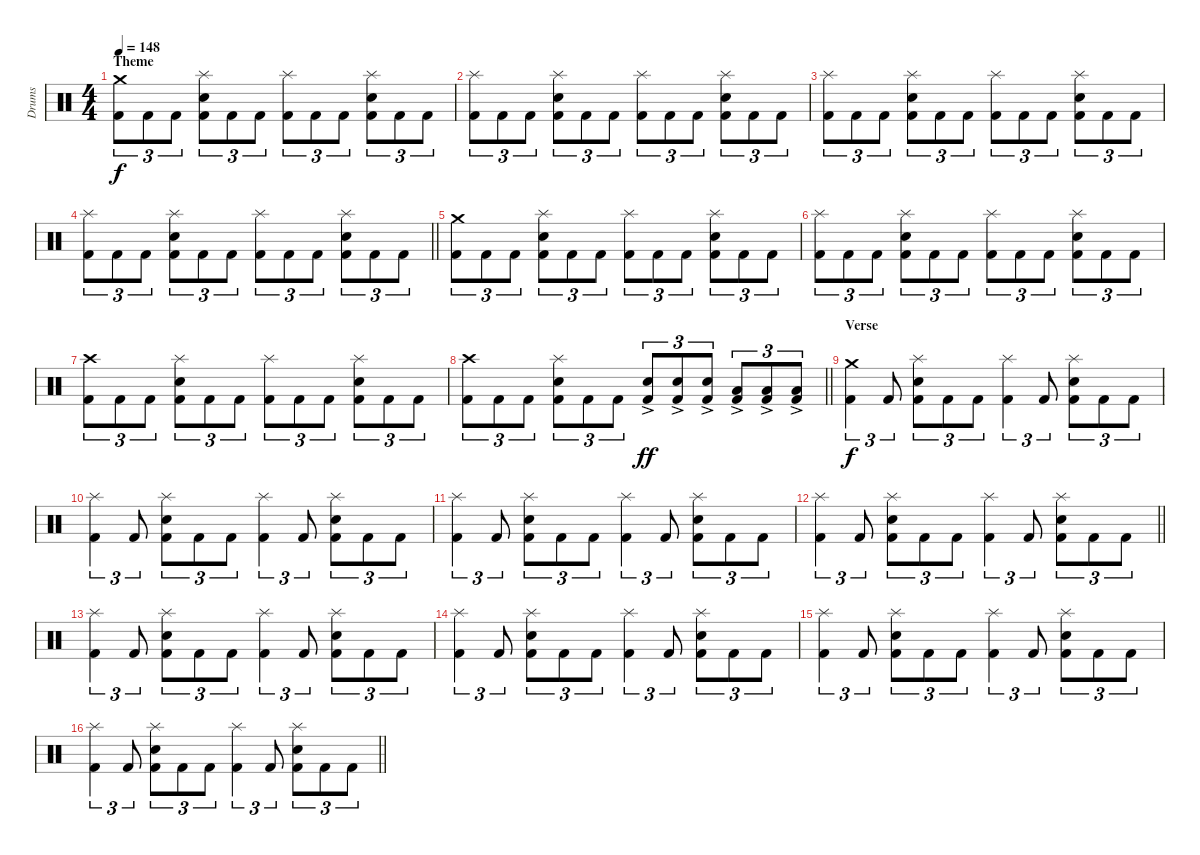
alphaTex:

\track ("Drums" "Drums") {instrument percussion}
\staff {score}
\articulation defaults
\ts (4 4)
\section ("" "Theme")
\tempo 148
\clef neutral
\ks c
("Kick (hit) 2" "Crash medium (hit)").8{tu (3 2) dy f} "Kick (hit) 2".8{tu (3 2)} "Kick (hit) 2".8{tu (3 2)} ("Kick (hit) 2" "Snare (hit) 2" "Splash (hit)").8{tu (3 2)} "Kick (hit) 2".8{tu (3 2)} "Kick (hit) 2".8{tu (3 2)} ("Kick (hit) 2" "Splash (hit)").8{tu (3 2)} "Kick (hit) 2".8{tu (3 2)} "Kick (hit) 2".8{tu (3 2)} ("Kick (hit) 2" "Snare (hit) 2" "Splash (hit)").8{tu (3 2)} "Kick (hit) 2".8{tu (3 2)} "Kick (hit) 2".8{tu (3 2)} |
("Kick (hit) 2" "Splash (hit)").8{tu (3 2)} "Kick (hit) 2".8{tu (3 2)} "Kick (hit) 2".8{tu (3 2)} ("Kick (hit) 2" "Snare (hit) 2" "Splash (hit)").8{tu (3 2)} "Kick (hit) 2".8{tu (3 2)} "Kick (hit) 2".8{tu (3 2)} ("Kick (hit) 2" "Splash (hit)").8{tu (3 2)} "Kick (hit) 2".8{tu (3 2)} "Kick (hit) 2".8{tu (3 2)} ("Kick (hit) 2" "Snare (hit) 2" "Splash (hit)").8{tu (3 2)} "Kick (hit) 2".8{tu (3 2)} "Kick (hit) 2".8{tu (3 2)} |
("Kick (hit) 2" "Splash (hit)").8{tu (3 2)} "Kick (hit) 2".8{tu (3 2)} "Kick (hit) 2".8{tu (3 2)} ("Kick (hit) 2" "Snare (hit) 2" "Splash (hit)").8{tu (3 2)} "Kick (hit) 2".8{tu (3 2)} "Kick (hit) 2".8{tu (3 2)} ("Kick (hit) 2" "Splash (hit)").8{tu (3 2)} "Kick (hit) 2".8{tu (3 2)} "Kick (hit) 2".8{tu (3 2)} ("Kick (hit) 2" "Snare (hit) 2" "Splash (hit)").8{tu (3 2)} "Kick (hit) 2".8{tu (3 2)} "Kick (hit) 2".8{tu (3 2)} |
\barLineRight lightlight
("Kick (hit) 2" "Splash (hit)").8{tu (3 2)} "Kick (hit) 2".8{tu (3 2)} "Kick (hit) 2".8{tu (3 2)} ("Kick (hit) 2" "Snare (hit) 2" "Splash (hit)").8{tu (3 2)} "Kick (hit) 2".8{tu (3 2)} "Kick (hit) 2".8{tu (3 2)} ("Kick (hit) 2" "Splash (hit)").8{tu (3 2)} "Kick (hit) 2".8{tu (3 2)} "Kick (hit) 2".8{tu (3 2)} ("Kick (hit) 2" "Snare (hit) 2" "Splash (hit)").8{tu (3 2)} "Kick (hit) 2".8{tu (3 2)} "Kick (hit) 2".8{tu (3 2)} |
\section ("" "")
("Kick (hit) 2" "Crash medium (hit)").8{tu (3 2)} "Kick (hit) 2".8{tu (3 2)} "Kick (hit) 2".8{tu (3 2)} ("Kick (hit) 2" "Snare (hit) 2" "Splash (hit)").8{tu (3 2)} "Kick (hit) 2".8{tu (3 2)} "Kick (hit) 2".8{tu (3 2)} ("Kick (hit) 2" "Splash (hit)").8{tu (3 2)} "Kick (hit) 2".8{tu (3 2)} "Kick (hit) 2".8{tu (3 2)} ("Kick (hit) 2" "Snare (hit) 2" "Splash (hit)").8{tu (3 2)} "Kick (hit) 2".8{tu (3 2)} "Kick (hit) 2".8{tu (3 2)} |
("Kick (hit) 2" "Splash (hit)").8{tu (3 2)} "Kick (hit) 2".8{tu (3 2)} "Kick (hit) 2".8{tu (3 2)} ("Kick (hit) 2" "Snare (hit) 2" "Splash (hit)").8{tu (3 2)} "Kick (hit) 2".8{tu (3 2)} "Kick (hit) 2".8{tu (3 2)} ("Kick (hit) 2" "Splash (hit)").8{tu (3 2)} "Kick (hit) 2".8{tu (3 2)} "Kick (hit) 2".8{tu (3 2)} ("Kick (hit) 2" "Snare (hit) 2" "Splash (hit)").8{tu (3 2)} "Kick (hit) 2".8{tu (3 2)} "Kick (hit) 2".8{tu (3 2)} |
("Kick (hit) 2" "Crash high (hit)").8{tu (3 2)} "Kick (hit) 2".8{tu (3 2)} "Kick (hit) 2".8{tu (3 2)} ("Kick (hit) 2" "Snare (hit) 2" "Splash (hit)").8{tu (3 2)} "Kick (hit) 2".8{tu (3 2)} "Kick (hit) 2".8{tu (3 2)} ("Kick (hit) 2" "Splash (hit)").8{tu (3 2)} "Kick (hit) 2".8{tu (3 2)} "Kick (hit) 2".8{tu (3 2)} ("Kick (hit) 2" "Snare (hit) 2" "Splash (hit)").8{tu (3 2)} "Kick (hit) 2".8{tu (3 2)} "Kick (hit) 2".8{tu (3 2)} |
\barLineRight lightlight
("Kick (hit) 2" "Crash high (hit)").8{tu (3 2)} "Kick (hit) 2".8{tu (3 2)} "Kick (hit) 2".8{tu (3 2)} ("Kick (hit) 2" "Snare (hit) 2" "Splash (hit)").8{tu (3 2)} "Kick (hit) 2".8{tu (3 2)} "Kick (hit) 2".8{tu (3 2)} ("Kick (hit) 2" "Snare (hit) 2"{ac}).8{tu (3 2) dy ff} ("Kick (hit) 2" "Snare (hit) 2"{ac}).8{tu (3 2)} ("Kick (hit) 2" "Snare (hit) 2"{ac}).8{tu (3 2)} ("Kick (hit) 2" "Low Tom (hit)"{ac}).8{tu (3 2)} ("Kick (hit) 2" "Low Tom (hit)"{ac}).8{tu (3 2)} ("Kick (hit) 2" "Low Tom (hit)"{ac}).8{tu (3 2)} |
\section ("" "Verse")
("Kick (hit) 2" "Crash medium (hit)").4{tu (3 2) dy f} "Kick (hit) 2".8{tu (3 2)} ("Kick (hit) 2" "Snare (hit) 2" "Splash (hit)").8{tu (3 2)} "Kick (hit) 2".8{tu (3 2)} "Kick (hit) 2".8{tu (3 2)} ("Kick (hit) 2" "Splash (hit)").4{tu (3 2)} "Kick (hit) 2".8{tu (3 2)} ("Kick (hit) 2" "Snare (hit) 2" "Splash (hit)").8{tu (3 2)} "Kick (hit) 2".8{tu (3 2)} "Kick (hit) 2".8{tu (3 2)} |
("Kick (hit) 2" "Splash (hit)").4{tu (3 2)} "Kick (hit) 2".8{tu (3 2)} ("Kick (hit) 2" "Snare (hit) 2" "Splash (hit)").8{tu (3 2)} "Kick (hit) 2".8{tu (3 2)} "Kick (hit) 2".8{tu (3 2)} ("Kick (hit) 2" "Splash (hit)").4{tu (3 2)} "Kick (hit) 2".8{tu (3 2)} ("Kick (hit) 2" "Snare (hit) 2" "Splash (hit)").8{tu (3 2)} "Kick (hit) 2".8{tu (3 2)} "Kick (hit) 2".8{tu (3 2)} |
("Kick (hit) 2" "Splash (hit)").4{tu (3 2)} "Kick (hit) 2".8{tu (3 2)} ("Kick (hit) 2" "Snare (hit) 2" "Splash (hit)").8{tu (3 2)} "Kick (hit) 2".8{tu (3 2)} "Kick (hit) 2".8{tu (3 2)} ("Kick (hit) 2" "Splash (hit)").4{tu (3 2)} "Kick (hit) 2".8{tu (3 2)} ("Kick (hit) 2" "Snare (hit) 2" "Splash (hit)").8{tu (3 2)} "Kick (hit) 2".8{tu (3 2)} "Kick (hit) 2".8{tu (3 2)} |
\barLineRight lightlight
("Kick (hit) 2" "Splash (hit)").4{tu (3 2)} "Kick (hit) 2".8{tu (3 2)} ("Kick (hit) 2" "Snare (hit) 2" "Splash (hit)").8{tu (3 2)} "Kick (hit) 2".8{tu (3 2)} "Kick (hit) 2".8{tu (3 2)} ("Kick (hit) 2" "Splash (hit)").4{tu (3 2)} "Kick (hit) 2".8{tu (3 2)} ("Kick (hit) 2" "Snare (hit) 2" "Splash (hit)").8{tu (3 2)} "Kick (hit) 2".8{tu (3 2)} "Kick (hit) 2".8{tu (3 2)} |
\section ("" "")
("Kick (hit) 2" "Splash (hit)").4{tu (3 2)} "Kick (hit) 2".8{tu (3 2)} ("Kick (hit) 2" "Snare (hit) 2" "Splash (hit)").8{tu (3 2)} "Kick (hit) 2".8{tu (3 2)} "Kick (hit) 2".8{tu (3 2)} ("Kick (hit) 2" "Splash (hit)").4{tu (3 2)} "Kick (hit) 2".8{tu (3 2)} ("Kick (hit) 2" "Snare (hit) 2" "Splash (hit)").8{tu (3 2)} "Kick (hit) 2".8{tu (3 2)} "Kick (hit) 2".8{tu (3 2)} |
("Kick (hit) 2" "Splash (hit)").4{tu (3 2)} "Kick (hit) 2".8{tu (3 2)} ("Kick (hit) 2" "Snare (hit) 2" "Splash (hit)").8{tu (3 2)} "Kick (hit) 2".8{tu (3 2)} "Kick (hit) 2".8{tu (3 2)} ("Kick (hit) 2" "Splash (hit)").4{tu (3 2)} "Kick (hit) 2".8{tu (3 2)} ("Kick (hit) 2" "Snare (hit) 2" "Splash (hit)").8{tu (3 2)} "Kick (hit) 2".8{tu (3 2)} "Kick (hit) 2".8{tu (3 2)} |
("Kick (hit) 2" "Splash (hit)").4{tu (3 2)} "Kick (hit) 2".8{tu (3 2)} ("Kick (hit) 2" "Snare (hit) 2" "Splash (hit)").8{tu (3 2)} "Kick (hit) 2".8{tu (3 2)} "Kick (hit) 2".8{tu (3 2)} ("Kick (hit) 2" "Splash (hit)").4{tu (3 2)} "Kick (hit) 2".8{tu (3 2)} ("Kick (hit) 2" "Snare (hit) 2" "Splash (hit)").8{tu (3 2)} "Kick (hit) 2".8{tu (3 2)} "Kick (hit) 2".8{tu (3 2)} |
\barLineRight lightlight
("Kick (hit) 2" "Splash (hit)").4{tu (3 2)} "Kick (hit) 2".8{tu (3 2)} ("Kick (hit) 2" "Snare (hit) 2" "Splash (hit)").8{tu (3 2)} "Kick (hit) 2".8{tu (3 2)} "Kick (hit) 2".8{tu (3 2)} ("Kick (hit) 2" "Splash (hit)").4{tu (3 2)} "Kick (hit) 2".8{tu (3 2)} ("Kick (hit) 2" "Snare (hit) 2" "Splash (hit)").8{tu (3 2)} "Kick (hit) 2".8{tu (3 2)} "Kick (hit) 2".8{tu (3 2)}
